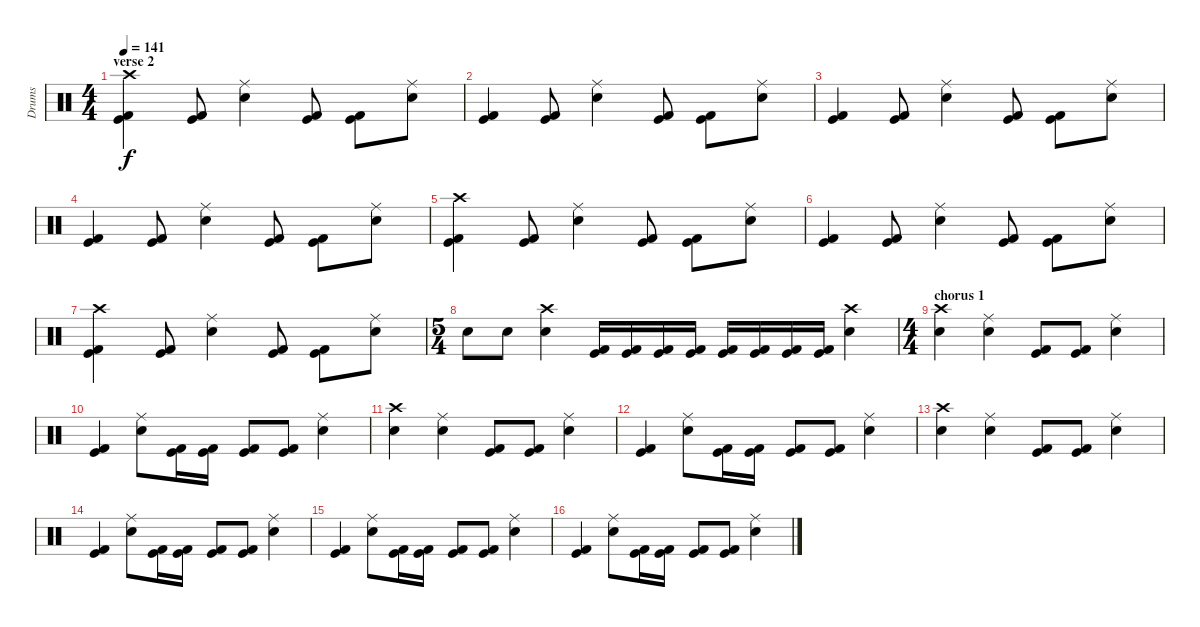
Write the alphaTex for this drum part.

\track ("Drums" "Drums") {instrument percussion}
\staff {score}
\articulation defaults
\ts (4 4)
\section ("" "verse 2")
\tempo 141
\clef neutral
\ks c
("Crash high (hit)" "Kick (hit)" "Kick (hit) 2").4{dy f} ("Kick (hit)" "Kick (hit) 2").8 ("Ride (middle)" "Electric Snare (hit)").4 ("Kick (hit)" "Kick (hit) 2").8 ("Kick (hit)" "Kick (hit) 2").8 ("Ride (middle)" "Electric Snare (hit)").8 |
("Kick (hit)" "Kick (hit) 2").4 ("Kick (hit)" "Kick (hit) 2").8 ("Ride (middle)" "Electric Snare (hit)").4 ("Kick (hit)" "Kick (hit) 2").8 ("Kick (hit)" "Kick (hit) 2").8 ("Ride (middle)" "Electric Snare (hit)").8 |
("Kick (hit)" "Kick (hit) 2").4 ("Kick (hit)" "Kick (hit) 2").8 ("Ride (middle)" "Electric Snare (hit)").4 ("Kick (hit)" "Kick (hit) 2").8 ("Kick (hit)" "Kick (hit) 2").8 ("Ride (middle)" "Electric Snare (hit)").8 |
("Kick (hit)" "Kick (hit) 2").4 ("Kick (hit)" "Kick (hit) 2").8 ("Ride (middle)" "Electric Snare (hit)").4 ("Kick (hit)" "Kick (hit) 2").8 ("Kick (hit)" "Kick (hit) 2").8 ("Ride (middle)" "Electric Snare (hit)").8 |
("Crash high (hit)" "Kick (hit)" "Kick (hit) 2").4 ("Kick (hit)" "Kick (hit) 2").8 ("Ride (middle)" "Electric Snare (hit)").4 ("Kick (hit)" "Kick (hit) 2").8 ("Kick (hit)" "Kick (hit) 2").8 ("Ride (middle)" "Electric Snare (hit)").8 |
("Kick (hit)" "Kick (hit) 2").4 ("Kick (hit)" "Kick (hit) 2").8 ("Ride (middle)" "Electric Snare (hit)").4 ("Kick (hit)" "Kick (hit) 2").8 ("Kick (hit)" "Kick (hit) 2").8 ("Ride (middle)" "Electric Snare (hit)").8 |
("Crash high (hit)" "Kick (hit)" "Kick (hit) 2").4 ("Kick (hit)" "Kick (hit) 2").8 ("Ride (middle)" "Electric Snare (hit)").4 ("Kick (hit)" "Kick (hit) 2").8 ("Kick (hit)" "Kick (hit) 2").8 ("Ride (middle)" "Electric Snare (hit)").8 |
\ts (5 4)
"Electric Snare (hit)".8 "Electric Snare (hit)".8 ("Crash high (hit)" "Electric Snare (hit)").4 ("Kick (hit)" "Kick (hit) 2").16 ("Kick (hit)" "Kick (hit) 2").16 ("Kick (hit)" "Kick (hit) 2").16 ("Kick (hit)" "Kick (hit) 2").16 ("Kick (hit)" "Kick (hit) 2").16 ("Kick (hit)" "Kick (hit) 2").16 ("Kick (hit)" "Kick (hit) 2").16 ("Kick (hit)" "Kick (hit) 2").16 ("Crash high (hit)" "Electric Snare (hit)").4 |
\ts (4 4)
\section ("" "chorus 1")
("Crash high (hit)" "Electric Snare (hit)").4 ("Ride (middle)" "Electric Snare (hit)").4 ("Kick (hit)" "Kick (hit) 2").8 ("Kick (hit)" "Kick (hit) 2").8 ("Ride (middle)" "Electric Snare (hit)").4 |
("Kick (hit)" "Kick (hit) 2").4 ("Ride (middle)" "Electric Snare (hit)").8 ("Kick (hit)" "Kick (hit) 2").16 ("Kick (hit)" "Kick (hit) 2").16 ("Kick (hit)" "Kick (hit) 2").8 ("Kick (hit)" "Kick (hit) 2").8 ("Ride (middle)" "Electric Snare (hit)").4 |
("Crash high (hit)" "Electric Snare (hit)").4 ("Ride (middle)" "Electric Snare (hit)").4 ("Kick (hit)" "Kick (hit) 2").8 ("Kick (hit)" "Kick (hit) 2").8 ("Ride (middle)" "Electric Snare (hit)").4 |
("Kick (hit)" "Kick (hit) 2").4 ("Ride (middle)" "Electric Snare (hit)").8 ("Kick (hit)" "Kick (hit) 2").16 ("Kick (hit)" "Kick (hit) 2").16 ("Kick (hit)" "Kick (hit) 2").8 ("Kick (hit)" "Kick (hit) 2").8 ("Ride (middle)" "Electric Snare (hit)").4 |
("Crash high (hit)" "Electric Snare (hit)").4 ("Ride (middle)" "Electric Snare (hit)").4 ("Kick (hit)" "Kick (hit) 2").8 ("Kick (hit)" "Kick (hit) 2").8 ("Ride (middle)" "Electric Snare (hit)").4 |
("Kick (hit)" "Kick (hit) 2").4 ("Ride (middle)" "Electric Snare (hit)").8 ("Kick (hit)" "Kick (hit) 2").16 ("Kick (hit)" "Kick (hit) 2").16 ("Kick (hit)" "Kick (hit) 2").8 ("Kick (hit)" "Kick (hit) 2").8 ("Ride (middle)" "Electric Snare (hit)").4 |
("Kick (hit)" "Kick (hit) 2").4 ("Ride (middle)" "Electric Snare (hit)").8 ("Kick (hit)" "Kick (hit) 2").16 ("Kick (hit)" "Kick (hit) 2").16 ("Kick (hit)" "Kick (hit) 2").8 ("Kick (hit)" "Kick (hit) 2").8 ("Ride (middle)" "Electric Snare (hit)").4 |
("Kick (hit)" "Kick (hit) 2").4 ("Ride (middle)" "Electric Snare (hit)").8 ("Kick (hit)" "Kick (hit) 2").16 ("Kick (hit)" "Kick (hit) 2").16 ("Kick (hit)" "Kick (hit) 2").8 ("Kick (hit)" "Kick (hit) 2").8 ("Ride (middle)" "Electric Snare (hit)").4
